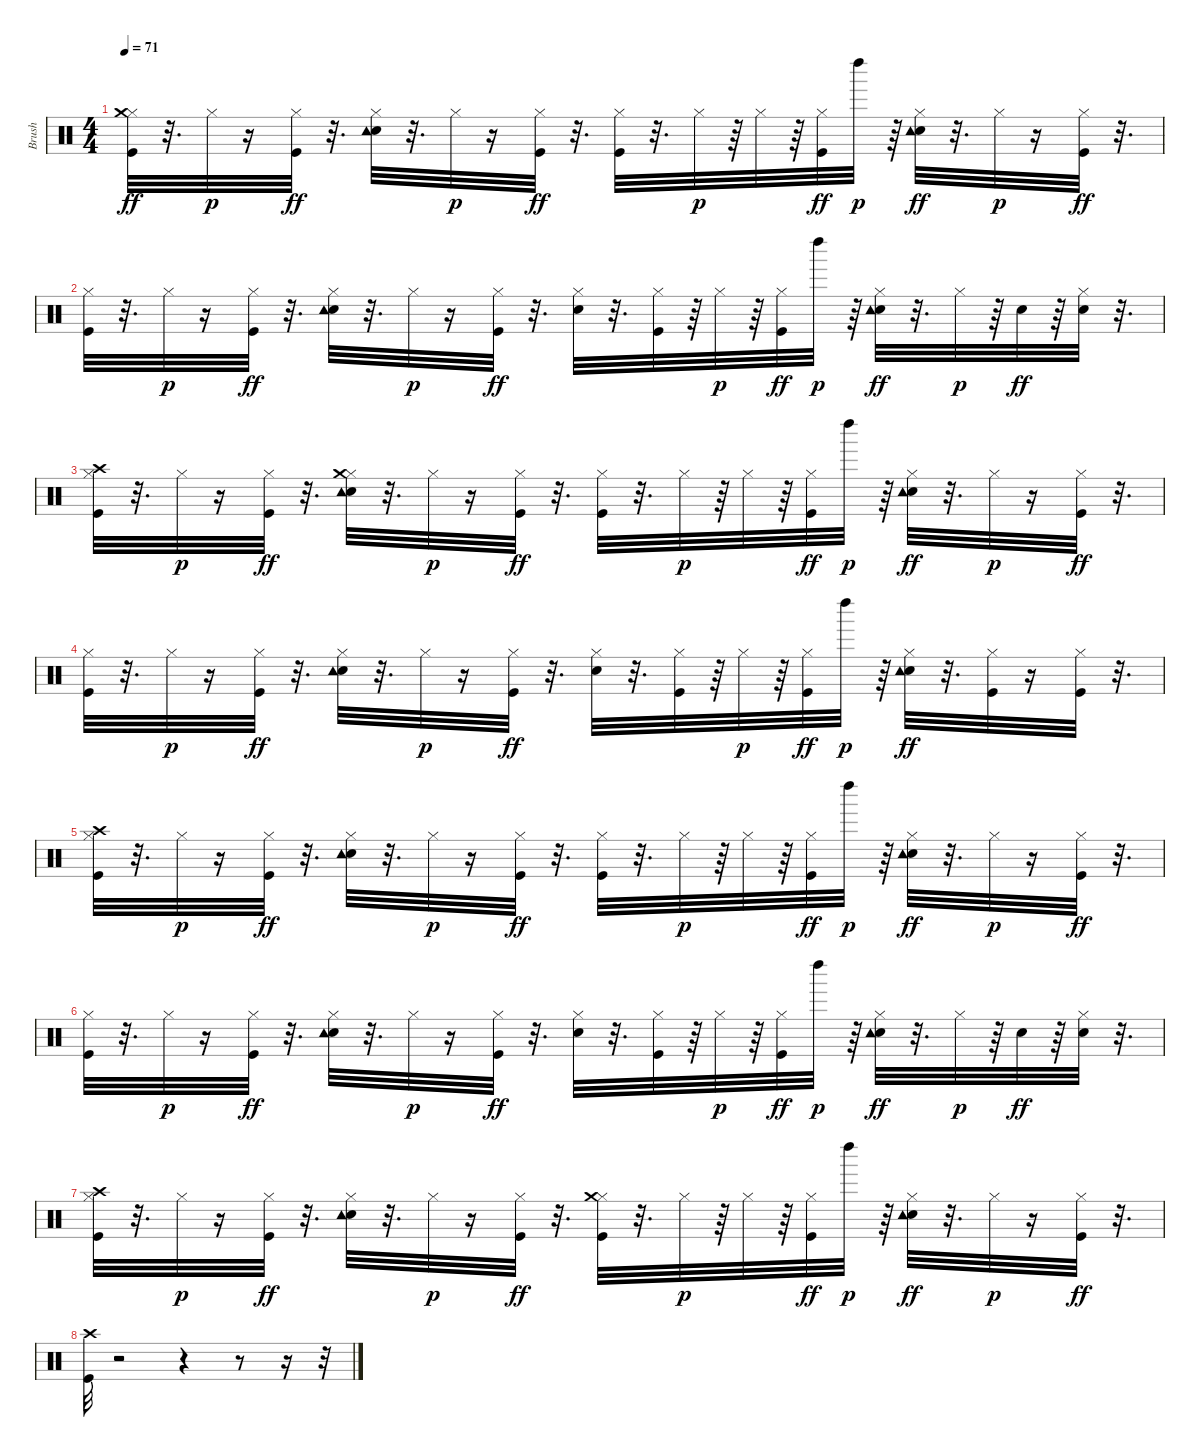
\track ("Brush               " "Brush     ") {instrument percussion}
\staff {score}
\articulation defaults
\ts (4 4)
\tempo 71
\clef neutral
\ks c
("Hi-Hat (closed)" "Kick (hit)" "Crash medium (hit)").32{dy ff} r.32{d} "Hi-Hat (closed)".32{dy p} r.16 ("Hi-Hat (closed)" "Kick (hit)").32{dy ff} r.32{d} ("Hi-Hat (closed)" "Snare (hit) 2" "Tambourine (hit)").32 r.32{d} "Hi-Hat (closed)".32{dy p} r.16 ("Hi-Hat (closed)" "Kick (hit)").32{dy ff} r.32{d} ("Hi-Hat (closed)" "Kick (hit)").32 r.32{d} "Hi-Hat (closed)".32{dy p} r.64 "Hi-Hat (closed)".32 r.64 ("Hi-Hat (closed)" "Kick (hit)").32{dy ff} "Left Maraca (hit)".32{dy p} r.64 ("Hi-Hat (closed)" "Snare (hit) 2" "Tambourine (hit)").32{dy ff} r.32{d} "Hi-Hat (closed)".32{dy p} r.16 ("Hi-Hat (closed)" "Kick (hit)").32{dy ff} r.32{d} |
("Hi-Hat (closed)" "Kick (hit)").32 r.32{d} "Hi-Hat (closed)".32{dy p} r.16 ("Hi-Hat (closed)" "Kick (hit)").32{dy ff} r.32{d} ("Hi-Hat (closed)" "Snare (hit) 2" "Tambourine (hit)").32 r.32{d} "Hi-Hat (closed)".32{dy p} r.16 ("Hi-Hat (closed)" "Kick (hit)").32{dy ff} r.32{d} ("Hi-Hat (closed)" "Snare (hit) 2").32 r.32{d} ("Hi-Hat (closed)" "Kick (hit)").32 r.64 "Hi-Hat (closed)".32{dy p} r.64 ("Hi-Hat (closed)" "Kick (hit)").32{dy ff} "Left Maraca (hit)".32{dy p} r.64 ("Hi-Hat (closed)" "Snare (hit) 2" "Tambourine (hit)").32{dy ff} r.32{d} "Hi-Hat (closed)".32{dy p} r.64 "Snare (hit) 2".32{dy ff} r.64 ("Hi-Hat (closed)" "Snare (hit) 2").32 r.32{d} |
("Hi-Hat (closed)" "Kick (hit)" "Crash high (hit)").32 r.32{d} "Hi-Hat (closed)".32{dy p} r.16 ("Hi-Hat (closed)" "Kick (hit)").32{dy ff} r.32{d} ("Hi-Hat (closed)" "Snare (hit) 2" "Tambourine (hit)" "Crash medium (hit)").32 r.32{d} "Hi-Hat (closed)".32{dy p} r.16 ("Hi-Hat (closed)" "Kick (hit)").32{dy ff} r.32{d} ("Hi-Hat (closed)" "Kick (hit)").32 r.32{d} "Hi-Hat (closed)".32{dy p} r.64 "Hi-Hat (closed)".32 r.64 ("Hi-Hat (closed)" "Kick (hit)").32{dy ff} "Left Maraca (hit)".32{dy p} r.64 ("Hi-Hat (closed)" "Snare (hit) 2" "Tambourine (hit)").32{dy ff} r.32{d} "Hi-Hat (closed)".32{dy p} r.16 ("Hi-Hat (closed)" "Kick (hit)").32{dy ff} r.32{d} |
("Hi-Hat (closed)" "Kick (hit)").32 r.32{d} "Hi-Hat (closed)".32{dy p} r.16 ("Hi-Hat (closed)" "Kick (hit)").32{dy ff} r.32{d} ("Hi-Hat (closed)" "Snare (hit) 2" "Tambourine (hit)").32 r.32{d} "Hi-Hat (closed)".32{dy p} r.16 ("Hi-Hat (closed)" "Kick (hit)").32{dy ff} r.32{d} ("Hi-Hat (closed)" "Snare (hit) 2").32 r.32{d} ("Hi-Hat (closed)" "Kick (hit)").32 r.64 "Hi-Hat (closed)".32{dy p} r.64 ("Hi-Hat (closed)" "Kick (hit)").32{dy ff} "Left Maraca (hit)".32{dy p} r.64 ("Hi-Hat (closed)" "Snare (hit) 2" "Tambourine (hit)").32{dy ff} r.32{d} ("Hi-Hat (closed)" "Kick (hit)").32 r.16 ("Hi-Hat (closed)" "Kick (hit)").32 r.32{d} |
("Hi-Hat (closed)" "Kick (hit)" "Crash high (hit)").32 r.32{d} "Hi-Hat (closed)".32{dy p} r.16 ("Hi-Hat (closed)" "Kick (hit)").32{dy ff} r.32{d} ("Hi-Hat (closed)" "Snare (hit) 2" "Tambourine (hit)").32 r.32{d} "Hi-Hat (closed)".32{dy p} r.16 ("Hi-Hat (closed)" "Kick (hit)").32{dy ff} r.32{d} ("Hi-Hat (closed)" "Kick (hit)").32 r.32{d} "Hi-Hat (closed)".32{dy p} r.64 "Hi-Hat (closed)".32 r.64 ("Hi-Hat (closed)" "Kick (hit)").32{dy ff} "Left Maraca (hit)".32{dy p} r.64 ("Hi-Hat (closed)" "Snare (hit) 2" "Tambourine (hit)").32{dy ff} r.32{d} "Hi-Hat (closed)".32{dy p} r.16 ("Hi-Hat (closed)" "Kick (hit)").32{dy ff} r.32{d} |
("Hi-Hat (closed)" "Kick (hit)").32 r.32{d} "Hi-Hat (closed)".32{dy p} r.16 ("Hi-Hat (closed)" "Kick (hit)").32{dy ff} r.32{d} ("Hi-Hat (closed)" "Snare (hit) 2" "Tambourine (hit)").32 r.32{d} "Hi-Hat (closed)".32{dy p} r.16 ("Hi-Hat (closed)" "Kick (hit)").32{dy ff} r.32{d} ("Hi-Hat (closed)" "Snare (hit) 2").32 r.32{d} ("Hi-Hat (closed)" "Kick (hit)").32 r.64 "Hi-Hat (closed)".32{dy p} r.64 ("Hi-Hat (closed)" "Kick (hit)").32{dy ff} "Left Maraca (hit)".32{dy p} r.64 ("Hi-Hat (closed)" "Snare (hit) 2" "Tambourine (hit)").32{dy ff} r.32{d} "Hi-Hat (closed)".32{dy p} r.64 "Snare (hit) 2".32{dy ff} r.64 ("Hi-Hat (closed)" "Snare (hit) 2").32 r.32{d} |
("Hi-Hat (closed)" "Kick (hit)" "Crash high (hit)").32 r.32{d} "Hi-Hat (closed)".32{dy p} r.16 ("Hi-Hat (closed)" "Kick (hit)").32{dy ff} r.32{d} ("Hi-Hat (closed)" "Snare (hit) 2" "Tambourine (hit)").32 r.32{d} "Hi-Hat (closed)".32{dy p} r.16 ("Hi-Hat (closed)" "Kick (hit)").32{dy ff} r.32{d} ("Hi-Hat (closed)" "Kick (hit)" "Crash medium (hit)").32 r.32{d} "Hi-Hat (closed)".32{dy p} r.64 "Hi-Hat (closed)".32 r.64 ("Hi-Hat (closed)" "Kick (hit)").32{dy ff} "Left Maraca (hit)".32{dy p} r.64 ("Hi-Hat (closed)" "Snare (hit) 2" "Tambourine (hit)").32{dy ff} r.32{d} "Hi-Hat (closed)".32{dy p} r.16 ("Hi-Hat (closed)" "Kick (hit)").32{dy ff} r.32{d} |
("Kick (hit)" "Crash high (hit)").32 r.2 r.4 r.8 r.16 r.32
